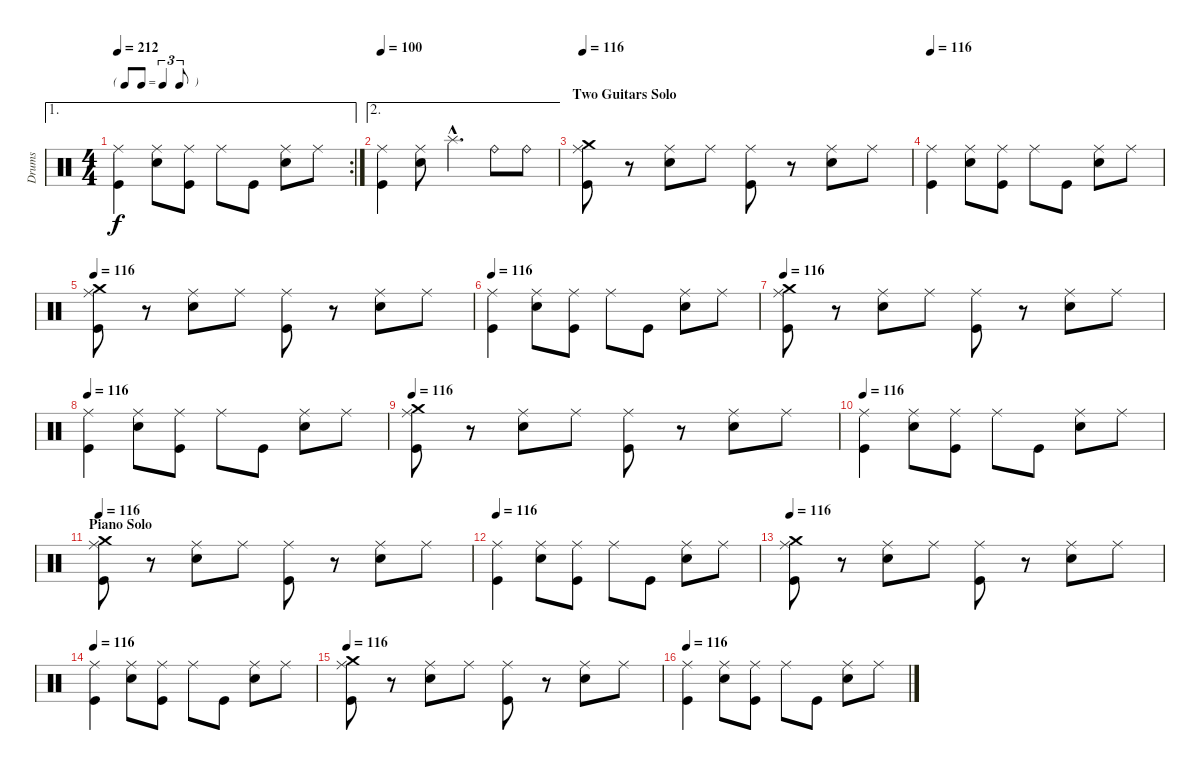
\track ("Drums" "Drums") {instrument percussion}
\staff {score}
\articulation defaults
\ae 1
\rc 2
\ts (4 4)
\tf triplet8th
\tempo 212
\clef neutral
\ks c
("Ride (middle)" "Kick (hit)").4{dy f} ("Ride (middle)" "Electric Snare (hit)").8 ("Ride (middle)" "Kick (hit)").8 "Ride (middle)".8 "Kick (hit)".8 ("Ride (middle)" "Electric Snare (hit)").8 "Ride (middle)".8 |
\ae 2
\tempo 100
("Ride (middle)" "Kick (hit)").4 ("Ride (middle)" "Electric Snare (hit)").8 "Splash (hit)"{hac}.4{d} "Ride (bell)".8 "Ride (bell)".8 |
\section ("" "Two Guitars Solo")
\tempo 116
("Crash medium (hit)" "Ride (middle)" "Kick (hit)").8 r.8 ("Ride (middle)" "Electric Snare (hit)").8 "Ride (middle)".8 ("Ride (middle)" "Kick (hit)").8 r.8 ("Ride (middle)" "Electric Snare (hit)").8 "Ride (middle)".8 |
\tempo 116
("Ride (middle)" "Kick (hit)").4 ("Ride (middle)" "Electric Snare (hit)").8 ("Ride (middle)" "Kick (hit)").8 "Ride (middle)".8 "Kick (hit)".8 ("Ride (middle)" "Electric Snare (hit)").8 "Ride (middle)".8 |
\tempo 116
("Crash medium (hit)" "Ride (middle)" "Kick (hit)").8 r.8 ("Ride (middle)" "Electric Snare (hit)").8 "Ride (middle)".8 ("Ride (middle)" "Kick (hit)").8 r.8 ("Ride (middle)" "Electric Snare (hit)").8 "Ride (middle)".8 |
\tempo 116
("Ride (middle)" "Kick (hit)").4 ("Ride (middle)" "Electric Snare (hit)").8 ("Ride (middle)" "Kick (hit)").8 "Ride (middle)".8 "Kick (hit)".8 ("Ride (middle)" "Electric Snare (hit)").8 "Ride (middle)".8 |
\tempo 116
("Crash medium (hit)" "Ride (middle)" "Kick (hit)").8 r.8 ("Ride (middle)" "Electric Snare (hit)").8 "Ride (middle)".8 ("Ride (middle)" "Kick (hit)").8 r.8 ("Ride (middle)" "Electric Snare (hit)").8 "Ride (middle)".8 |
\tempo 116
("Ride (middle)" "Kick (hit)").4 ("Ride (middle)" "Electric Snare (hit)").8 ("Ride (middle)" "Kick (hit)").8 "Ride (middle)".8 "Kick (hit)".8 ("Ride (middle)" "Electric Snare (hit)").8 "Ride (middle)".8 |
\tempo 116
("Crash medium (hit)" "Ride (middle)" "Kick (hit)").8 r.8 ("Ride (middle)" "Electric Snare (hit)").8 "Ride (middle)".8 ("Ride (middle)" "Kick (hit)").8 r.8 ("Ride (middle)" "Electric Snare (hit)").8 "Ride (middle)".8 |
\tempo 116
("Ride (middle)" "Kick (hit)").4 ("Ride (middle)" "Electric Snare (hit)").8 ("Ride (middle)" "Kick (hit)").8 "Ride (middle)".8 "Kick (hit)".8 ("Ride (middle)" "Electric Snare (hit)").8 "Ride (middle)".8 |
\section ("" "Piano Solo")
\tempo 116
("Crash medium (hit)" "Ride (middle)" "Kick (hit)").8 r.8 ("Ride (middle)" "Electric Snare (hit)").8 "Ride (middle)".8 ("Ride (middle)" "Kick (hit)").8 r.8 ("Ride (middle)" "Electric Snare (hit)").8 "Ride (middle)".8 |
\tempo 116
("Ride (middle)" "Kick (hit)").4 ("Ride (middle)" "Electric Snare (hit)").8 ("Ride (middle)" "Kick (hit)").8 "Ride (middle)".8 "Kick (hit)".8 ("Ride (middle)" "Electric Snare (hit)").8 "Ride (middle)".8 |
\tempo 116
("Crash medium (hit)" "Ride (middle)" "Kick (hit)").8 r.8 ("Ride (middle)" "Electric Snare (hit)").8 "Ride (middle)".8 ("Ride (middle)" "Kick (hit)").8 r.8 ("Ride (middle)" "Electric Snare (hit)").8 "Ride (middle)".8 |
\tempo 116
("Ride (middle)" "Kick (hit)").4 ("Ride (middle)" "Electric Snare (hit)").8 ("Ride (middle)" "Kick (hit)").8 "Ride (middle)".8 "Kick (hit)".8 ("Ride (middle)" "Electric Snare (hit)").8 "Ride (middle)".8 |
\tempo 116
("Crash medium (hit)" "Ride (middle)" "Kick (hit)").8 r.8 ("Ride (middle)" "Electric Snare (hit)").8 "Ride (middle)".8 ("Ride (middle)" "Kick (hit)").8 r.8 ("Ride (middle)" "Electric Snare (hit)").8 "Ride (middle)".8 |
\tempo 116
("Ride (middle)" "Kick (hit)").4 ("Ride (middle)" "Electric Snare (hit)").8 ("Ride (middle)" "Kick (hit)").8 "Ride (middle)".8 "Kick (hit)".8 ("Ride (middle)" "Electric Snare (hit)").8 "Ride (middle)".8
